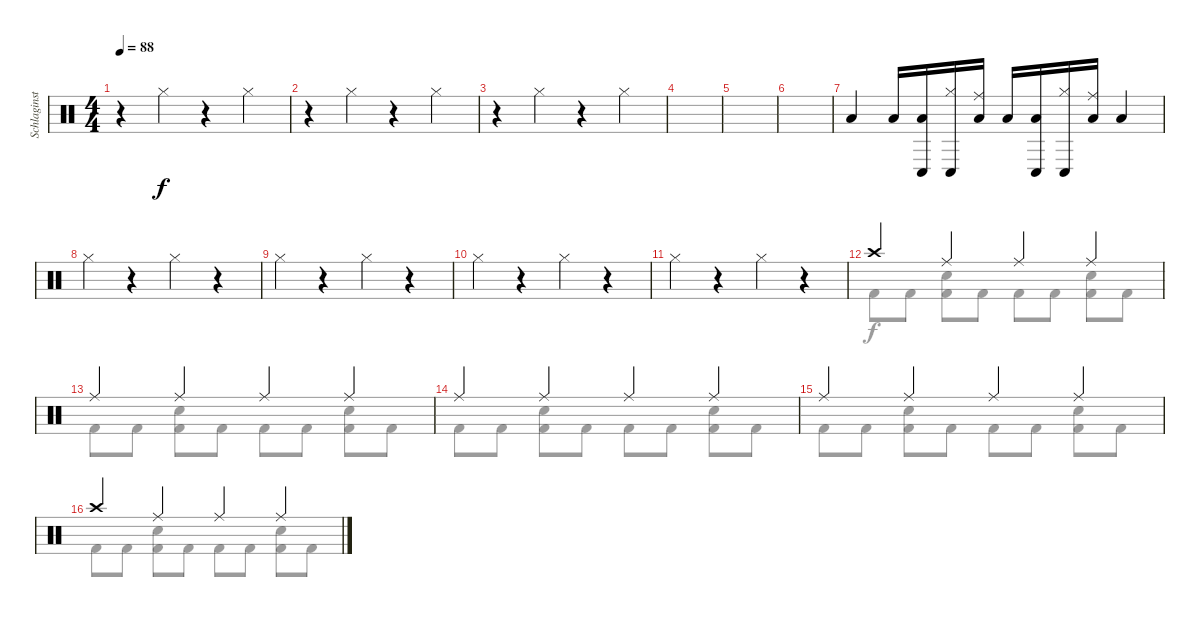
\track ("Schlaginstrumente - Auswahl" "Schlaginst") {instrument percussion}
\staff {score}
\articulation defaults
\voice
\ts (4 4)
\tempo 88
\clef neutral
\ks c
r.4{dy f} "Hi-Hat (closed)".4 r.4 "Hi-Hat (closed)".4 |
r.4 "Hi-Hat (closed)".4 r.4 "Hi-Hat (closed)".4 |
r.4 "Hi-Hat (closed)".4 r.4 "Hi-Hat (closed)".4 |
|
|
|
"Low Tom (hit)".4 "Low Tom (hit)".16 ("Conga low (hit)" "Low Tom (hit)").16 ("Conga low (hit)" "Hi-Hat (closed)").16 ("Low Tom (hit)" "Ride (middle)").16 "Low Tom (hit)".16 ("Conga low (hit)" "Low Tom (hit)").16 ("Conga low (hit)" "Hi-Hat (closed)").16 ("Low Tom (hit)" "Ride (middle)").16 "Low Tom (hit)".4 |
"Hi-Hat (closed)".4 r.4 "Hi-Hat (closed)".4 r.4 |
"Hi-Hat (closed)".4 r.4 "Hi-Hat (closed)".4 r.4 |
"Hi-Hat (closed)".4 r.4 "Hi-Hat (closed)".4 r.4 |
"Hi-Hat (closed)".4 r.4 "Hi-Hat (closed)".4 r.4 |
"Crash high (hit)".4{volume 10 balance 8} "Ride (middle)".4 "Ride (middle)".4 "Ride (middle)".4 |
"Ride (middle)".4 "Ride (middle)".4 "Ride (middle)".4 "Ride (middle)".4 |
"Ride (middle)".4 "Ride (middle)".4 "Ride (middle)".4 "Ride (middle)".4 |
"Ride (middle)".4 "Ride (middle)".4 "Ride (middle)".4 "Ride (middle)".4 |
"Crash high (hit)".4{volume 10 balance 8} "Ride (middle)".4 "Ride (middle)".4 "Ride (middle)".4
\voice
\clef neutral
\ottava regular
\simile none
\ks c
|
|
|
|
|
|
|
|
|
|
|
"Kick (hit) 2".8 "Kick (hit) 2".8 ("Electric Snare (hit)" "Kick (hit) 2").8 "Kick (hit) 2".8 "Kick (hit) 2".8 "Kick (hit) 2".8 ("Electric Snare (hit)" "Kick (hit) 2").8 "Kick (hit) 2".8 |
"Kick (hit) 2".8 "Kick (hit) 2".8 ("Electric Snare (hit)" "Kick (hit) 2").8 "Kick (hit) 2".8 "Kick (hit) 2".8 "Kick (hit) 2".8 ("Electric Snare (hit)" "Kick (hit) 2").8 "Kick (hit) 2".8 |
"Kick (hit) 2".8 "Kick (hit) 2".8 ("Electric Snare (hit)" "Kick (hit) 2").8 "Kick (hit) 2".8 "Kick (hit) 2".8 "Kick (hit) 2".8 ("Electric Snare (hit)" "Kick (hit) 2").8 "Kick (hit) 2".8 |
"Kick (hit) 2".8 "Kick (hit) 2".8 ("Electric Snare (hit)" "Kick (hit) 2").8 "Kick (hit) 2".8 "Kick (hit) 2".8 "Kick (hit) 2".8 ("Electric Snare (hit)" "Kick (hit) 2").8 "Kick (hit) 2".8 |
"Kick (hit) 2".8 "Kick (hit) 2".8 ("Electric Snare (hit)" "Kick (hit) 2").8 "Kick (hit) 2".8 "Kick (hit) 2".8 "Kick (hit) 2".8 ("Electric Snare (hit)" "Kick (hit) 2").8 "Kick (hit) 2".8
